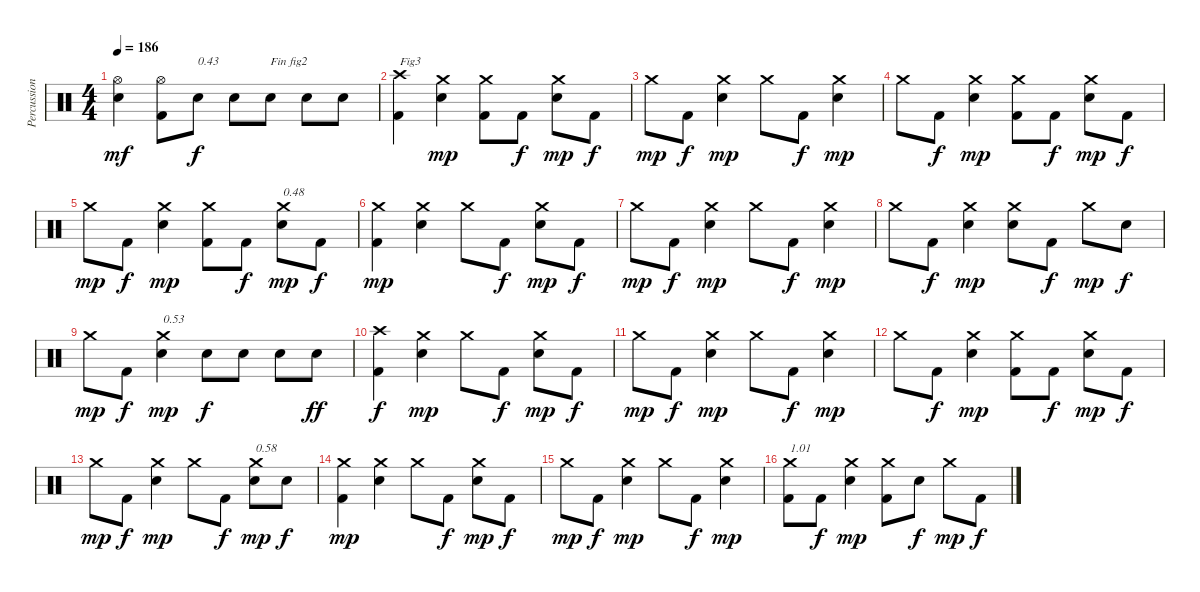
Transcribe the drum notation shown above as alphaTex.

\track ("Percussions" "Percussion") {instrument percussion}
\staff {score}
\articulation defaults
\ts (4 4)
\tempo 186
\clef neutral
\ks c
("Electric Snare (hit)" "Hi-Hat (open)").4{dy mf} ("Kick (hit) 2" "Hi-Hat (open)").8 "Electric Snare (hit)".8{txt "0.43" dy f} "Electric Snare (hit)".8 "Electric Snare (hit)".8{txt "Fin fig2"} "Electric Snare (hit)".8 "Electric Snare (hit)".8 |
("Kick (hit) 2" "Crash high (hit)").4{txt "Fig3"} ("Electric Snare (hit)" "Crash medium (hit)").4{dy mp} ("Kick (hit) 2" "Crash medium (hit)").8 "Kick (hit) 2".8{dy f} ("Electric Snare (hit)" "Crash medium (hit)").8{dy mp} "Kick (hit) 2".8{dy f} |
"Crash medium (hit)".8{dy mp} "Kick (hit) 2".8{dy f} ("Electric Snare (hit)" "Crash medium (hit)").4{dy mp} "Crash medium (hit)".8 "Kick (hit) 2".8{dy f} ("Electric Snare (hit)" "Crash medium (hit)").4{dy mp} |
"Crash medium (hit)".8 "Kick (hit) 2".8{dy f} ("Electric Snare (hit)" "Crash medium (hit)").4{dy mp} ("Kick (hit) 2" "Crash medium (hit)").8 "Kick (hit) 2".8{dy f} ("Electric Snare (hit)" "Crash medium (hit)").8{dy mp} "Kick (hit) 2".8{dy f} |
"Crash medium (hit)".8{dy mp} "Kick (hit) 2".8{dy f} ("Electric Snare (hit)" "Crash medium (hit)").4{dy mp} ("Kick (hit) 2" "Crash medium (hit)").8 "Kick (hit) 2".8{dy f} ("Electric Snare (hit)" "Crash medium (hit)").8{txt "0.48" dy mp} "Kick (hit) 2".8{dy f} |
("Kick (hit) 2" "Crash medium (hit)").4{dy mp} ("Electric Snare (hit)" "Crash medium (hit)").4 "Crash medium (hit)".8 "Kick (hit) 2".8{dy f} ("Electric Snare (hit)" "Crash medium (hit)").8{dy mp} "Kick (hit) 2".8{dy f} |
"Crash medium (hit)".8{dy mp} "Kick (hit) 2".8{dy f} ("Electric Snare (hit)" "Crash medium (hit)").4{dy mp} "Crash medium (hit)".8 "Kick (hit) 2".8{dy f} ("Electric Snare (hit)" "Crash medium (hit)").4{dy mp} |
"Crash medium (hit)".8 "Kick (hit) 2".8{dy f} ("Electric Snare (hit)" "Crash medium (hit)").4{dy mp} ("Electric Snare (hit)" "Crash medium (hit)").8 "Kick (hit) 2".8{dy f} "Crash medium (hit)".8{dy mp} "Electric Snare (hit)".8{dy f} |
"Crash medium (hit)".8{dy mp} "Kick (hit) 2".8{dy f} ("Electric Snare (hit)" "Crash medium (hit)").4{txt "0.53" dy mp} "Electric Snare (hit)".8{dy f} "Electric Snare (hit)".8 "Electric Snare (hit)".8 "Electric Snare (hit)".8{dy ff} |
("Kick (hit) 2" "Crash high (hit)").4{dy f} ("Electric Snare (hit)" "Crash medium (hit)").4{dy mp} "Crash medium (hit)".8 "Kick (hit) 2".8{dy f} ("Electric Snare (hit)" "Crash medium (hit)").8{dy mp} "Kick (hit) 2".8{dy f} |
"Crash medium (hit)".8{dy mp} "Kick (hit) 2".8{dy f} ("Electric Snare (hit)" "Crash medium (hit)").4{dy mp} "Crash medium (hit)".8 "Kick (hit) 2".8{dy f} ("Electric Snare (hit)" "Crash medium (hit)").4{dy mp} |
"Crash medium (hit)".8 "Kick (hit) 2".8{dy f} ("Electric Snare (hit)" "Crash medium (hit)").4{dy mp} ("Kick (hit) 2" "Crash medium (hit)").8 "Kick (hit) 2".8{dy f} ("Electric Snare (hit)" "Crash medium (hit)").8{dy mp} "Kick (hit) 2".8{dy f} |
"Crash medium (hit)".8{dy mp} "Kick (hit) 2".8{dy f} ("Electric Snare (hit)" "Crash medium (hit)").4{dy mp} "Crash medium (hit)".8 "Kick (hit) 2".8{dy f} ("Electric Snare (hit)" "Crash medium (hit)").8{txt "0.58" dy mp} "Electric Snare (hit)".8{dy f} |
("Kick (hit) 2" "Crash medium (hit)").4{dy mp} ("Electric Snare (hit)" "Crash medium (hit)").4 "Crash medium (hit)".8 "Kick (hit) 2".8{dy f} ("Electric Snare (hit)" "Crash medium (hit)").8{dy mp} "Kick (hit) 2".8{dy f} |
"Crash medium (hit)".8{dy mp} "Kick (hit) 2".8{dy f} ("Electric Snare (hit)" "Crash medium (hit)").4{dy mp} "Crash medium (hit)".8 "Kick (hit) 2".8{dy f} ("Electric Snare (hit)" "Crash medium (hit)").4{dy mp} |
("Kick (hit) 2" "Crash medium (hit)").8{txt "1.01"} "Kick (hit) 2".8{dy f} ("Electric Snare (hit)" "Crash medium (hit)").4{dy mp} ("Kick (hit) 2" "Crash medium (hit)").8 "Electric Snare (hit)".8{dy f} "Crash medium (hit)".8{dy mp} "Kick (hit) 2".8{dy f}
